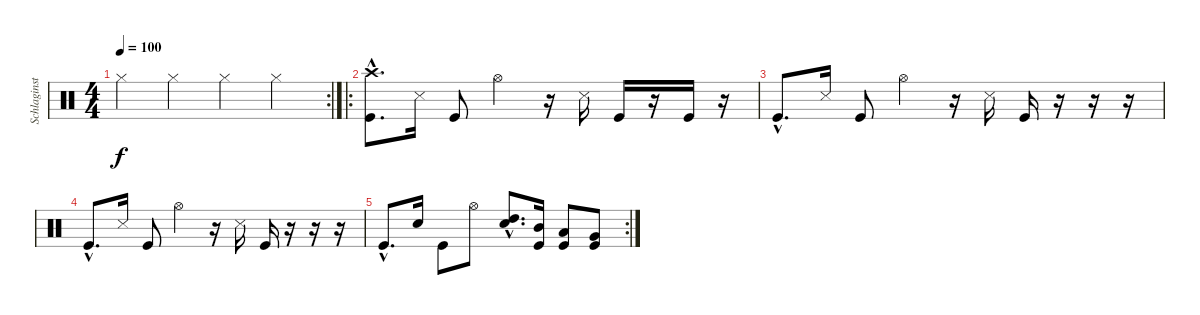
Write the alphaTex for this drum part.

\track ("Schlaginstrumente - Auswahl" "Schlaginst") {instrument percussion}
\staff {score}
\articulation defaults
\rc 2
\ts (4 4)
\tempo 100
\clef neutral
\ks c "Hi-Hat (closed)".4{dy f} "Hi-Hat (closed)".4 "Hi-Hat (closed)".4 "Hi-Hat (closed)".4
|
\ro
("Crash high (hit)"{hac} "Kick (hit)"{hac}).8{d} "Snare (side stick) 3".16 "Kick (hit)".8 "Hi-Hat (open)".4 r.16 "Snare (side stick) 3".16 "Kick (hit)".16 r.16 "Kick (hit)".16 r.16 |
"Kick (hit)"{hac}.8{d} "Snare (side stick) 3".16 "Kick (hit)".8 "Hi-Hat (open)".4 r.16 "Snare (side stick) 3".16 "Kick (hit)".16 r.16 r.16 r.16 |
"Kick (hit)"{hac}.8{d} "Snare (side stick) 3".16 "Kick (hit)".8 "Hi-Hat (open)".4 r.16 "Snare (side stick) 3".16 "Kick (hit)".16 r.16 r.16 r.16 |
\rc 2 "Kick (hit)"{hac}.8{d} "Electric Snare (hit)".16 "Kick (hit)".8 "Hi-Hat (open)".8
("High Tom (hit)"{hac} "Electric Snare (hit)"{hac}).8{d} ("Mid Tom (hit)" "Kick (hit)").16 ("Low Tom (hit)" "Kick (hit)").8 ("Very Low Tom (hit)" "Kick (hit)").8
